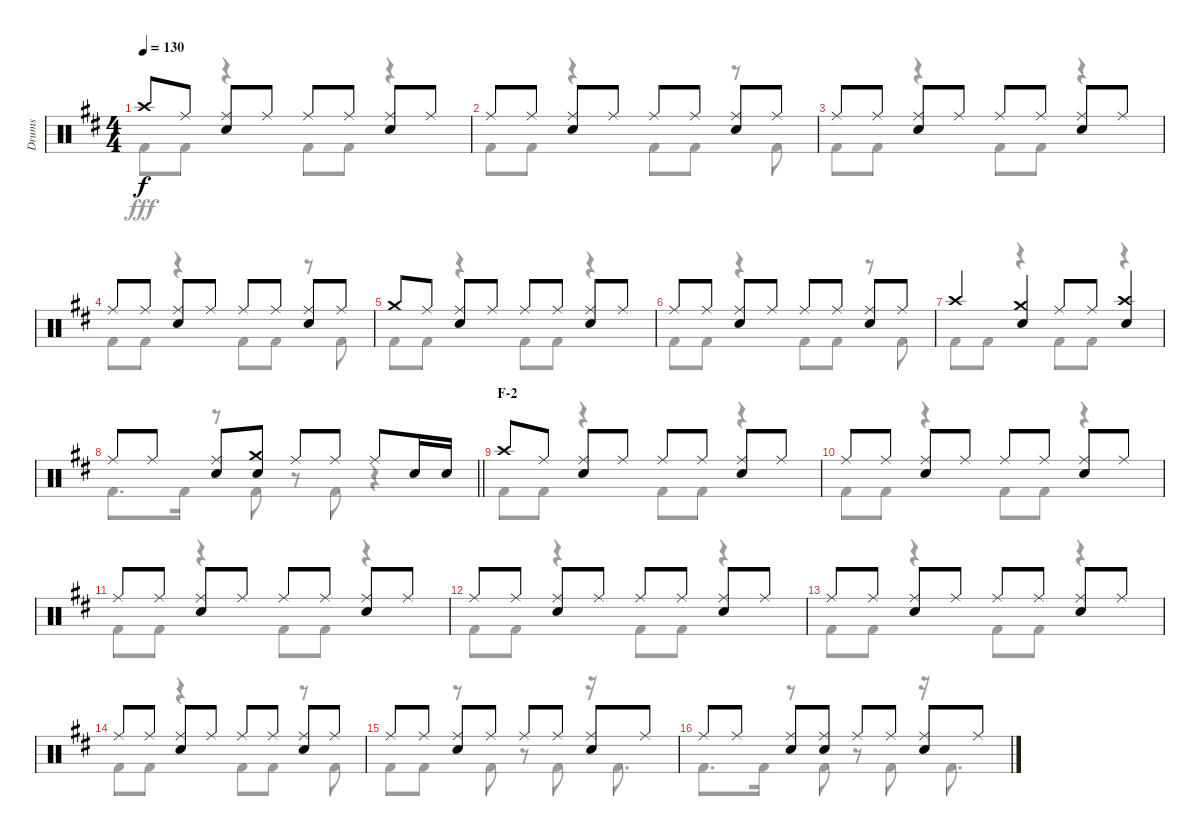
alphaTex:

\track ("Drums" "Drums") {instrument percussion}
\staff {score}
\articulation defaults
\voice
\ts (4 4)
\tempo 130
\clef neutral
\ks d "Crash high (hit)".8{dy f} "Ride (middle)".8
("Ride (middle)" "Snare (hit) 2").8 "Ride (middle)".8 "Ride (middle)".8 "Ride (middle)".8 ("Ride (middle)" "Snare (hit) 2").8 "Ride (middle)".8 |
"Ride (middle)".8 "Ride (middle)".8 ("Ride (middle)" "Snare (hit) 2").8 "Ride (middle)".8 "Ride (middle)".8 "Ride (middle)".8 ("Ride (middle)" "Snare (hit) 2").8 "Ride (middle)".8 |
"Ride (middle)".8 "Ride (middle)".8 ("Ride (middle)" "Snare (hit) 2").8 "Ride (middle)".8 "Ride (middle)".8 "Ride (middle)".8 ("Ride (middle)" "Snare (hit) 2").8 "Ride (middle)".8 |
"Ride (middle)".8 "Ride (middle)".8 ("Ride (middle)" "Snare (hit) 2").8 "Ride (middle)".8 "Ride (middle)".8 "Ride (middle)".8 ("Ride (middle)" "Snare (hit) 2").8 "Ride (middle)".8 |
"Crash medium (hit)".8 "Ride (middle)".8 ("Ride (middle)" "Snare (hit) 2").8 "Ride (middle)".8 "Ride (middle)".8 "Ride (middle)".8 ("Ride (middle)" "Snare (hit) 2").8 "Ride (middle)".8 |
"Ride (middle)".8 "Ride (middle)".8 ("Ride (middle)" "Snare (hit) 2").8 "Ride (middle)".8 "Ride (middle)".8 "Ride (middle)".8 ("Ride (middle)" "Snare (hit) 2").8 "Ride (middle)".8 |
"Crash high (hit)".4 ("Crash medium (hit)" "Snare (hit) 2").4 "Ride (middle)".8 "Ride (middle)".8 ("Crash high (hit)" "Snare (hit) 2").4 |
\barLineRight lightlight "Ride (middle)".8 "Ride (middle)".8
("Ride (middle)" "Snare (hit) 2").8 ("Crash medium (hit)" "Snare (hit) 2").8 "Ride (middle)".8 "Ride (middle)".8 "Ride (middle)".8 "Snare (hit) 2".16 "Snare (hit) 2".16 |
\section ("" "F-2")
"Crash high (hit)".8 "Ride (middle)".8 ("Ride (middle)" "Snare (hit) 2").8 "Ride (middle)".8 "Ride (middle)".8 "Ride (middle)".8 ("Ride (middle)" "Snare (hit) 2").8 "Ride (middle)".8 |
"Ride (middle)".8 "Ride (middle)".8 ("Ride (middle)" "Snare (hit) 2").8 "Ride (middle)".8 "Ride (middle)".8 "Ride (middle)".8 ("Ride (middle)" "Snare (hit) 2").8 "Ride (middle)".8 |
"Ride (middle)".8 "Ride (middle)".8 ("Ride (middle)" "Snare (hit) 2").8 "Ride (middle)".8 "Ride (middle)".8 "Ride (middle)".8 ("Ride (middle)" "Snare (hit) 2").8 "Ride (middle)".8 |
"Ride (middle)".8 "Ride (middle)".8 ("Ride (middle)" "Snare (hit) 2").8 "Ride (middle)".8 "Ride (middle)".8 "Ride (middle)".8 ("Ride (middle)" "Snare (hit) 2").8 "Ride (middle)".8 |
"Ride (middle)".8 "Ride (middle)".8 ("Ride (middle)" "Snare (hit) 2").8 "Ride (middle)".8 "Ride (middle)".8 "Ride (middle)".8 ("Ride (middle)" "Snare (hit) 2").8 "Ride (middle)".8 |
"Ride (middle)".8 "Ride (middle)".8 ("Ride (middle)" "Snare (hit) 2").8 "Ride (middle)".8 "Ride (middle)".8 "Ride (middle)".8 ("Ride (middle)" "Snare (hit) 2").8 "Ride (middle)".8 |
"Ride (middle)".8 "Ride (middle)".8 ("Ride (middle)" "Snare (hit) 2").8 "Ride (middle)".8 "Ride (middle)".8 "Ride (middle)".8 ("Ride (middle)" "Snare (hit) 2").8 "Ride (middle)".8 |
"Ride (middle)".8 "Ride (middle)".8 ("Ride (middle)" "Snare (hit) 2").8 ("Ride (middle)" "Snare (hit) 2").8 "Ride (middle)".8 "Ride (middle)".8 ("Ride (middle)" "Snare (hit) 2").8 "Ride (middle)".8
\voice
\clef neutral
\ottava regular
\simile none
\ks d "Kick (hit) 2".8{dy fff} "Kick (hit) 2".8
r.4 "Kick (hit) 2".8 "Kick (hit) 2".8 r.4 |
"Kick (hit) 2".8 "Kick (hit) 2".8 r.4 "Kick (hit) 2".8 "Kick (hit) 2".8 r.8 "Kick (hit) 2".8 |
"Kick (hit) 2".8 "Kick (hit) 2".8 r.4 "Kick (hit) 2".8 "Kick (hit) 2".8 r.4 |
"Kick (hit) 2".8 "Kick (hit) 2".8 r.4 "Kick (hit) 2".8 "Kick (hit) 2".8 r.8 "Kick (hit) 2".8 |
"Kick (hit) 2".8 "Kick (hit) 2".8 r.4 "Kick (hit) 2".8 "Kick (hit) 2".8 r.4 |
"Kick (hit) 2".8 "Kick (hit) 2".8 r.4 "Kick (hit) 2".8 "Kick (hit) 2".8 r.8 "Kick (hit) 2".8 |
"Kick (hit) 2".8 "Kick (hit) 2".8 r.4 "Kick (hit) 2".8 "Kick (hit) 2".8 r.4 |
\barLineRight lightlight "Kick (hit) 2".8{d} "Kick (hit) 2".16
r.8 "Kick (hit) 2".8 r.8 "Kick (hit) 2".8 r.4 |
"Kick (hit) 2".8 "Kick (hit) 2".8 r.4 "Kick (hit) 2".8 "Kick (hit) 2".8 r.4 |
"Kick (hit) 2".8 "Kick (hit) 2".8 r.4 "Kick (hit) 2".8 "Kick (hit) 2".8 r.4 |
"Kick (hit) 2".8 "Kick (hit) 2".8 r.4 "Kick (hit) 2".8 "Kick (hit) 2".8 r.4 |
"Kick (hit) 2".8 "Kick (hit) 2".8 r.4 "Kick (hit) 2".8 "Kick (hit) 2".8 r.4 |
"Kick (hit) 2".8 "Kick (hit) 2".8 r.4 "Kick (hit) 2".8 "Kick (hit) 2".8 r.4 |
"Kick (hit) 2".8 "Kick (hit) 2".8 r.4 "Kick (hit) 2".8 "Kick (hit) 2".8 r.8 "Kick (hit) 2".8 |
"Kick (hit) 2".8 "Kick (hit) 2".8 r.8 "Kick (hit) 2".8 r.8 "Kick (hit) 2".8 r.16 "Kick (hit) 2".8{d} |
"Kick (hit) 2".8{d} "Kick (hit) 2".16 r.8 "Kick (hit) 2".8 r.8 "Kick (hit) 2".8 r.16 "Kick (hit) 2".8{d}
